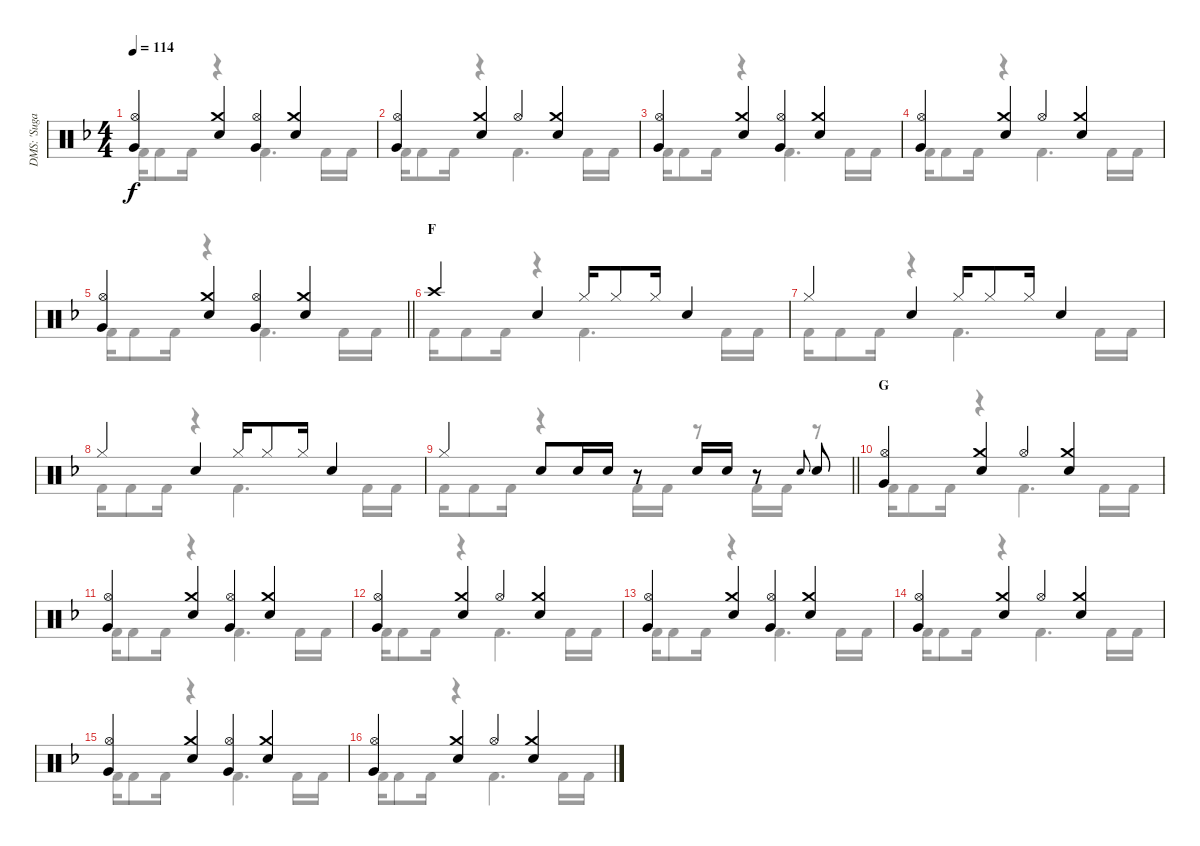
\track ("DMS: 'Sugarfoot' Moffett" "DMS: 'Suga") {instrument percussion}
\staff {score}
\articulation defaults
\voice
\ts (4 4)
\tempo 114
\clef neutral
\ks f
("Hi-Hat (open)" "Very Low Tom (hit)").4{dy f} ("Crash medium (hit)" "Snare (hit) 2").4 ("Hi-Hat (open)" "Very Low Tom (hit)").4 ("Crash medium (hit)" "Snare (hit) 2").4 |
("Hi-Hat (open)" "Very Low Tom (hit)").4 ("Crash medium (hit)" "Snare (hit) 2").4 "Hi-Hat (open)".4 ("Crash medium (hit)" "Snare (hit) 2").4 |
("Hi-Hat (open)" "Very Low Tom (hit)").4 ("Crash medium (hit)" "Snare (hit) 2").4 ("Hi-Hat (open)" "Very Low Tom (hit)").4 ("Crash medium (hit)" "Snare (hit) 2").4 |
("Hi-Hat (open)" "Very Low Tom (hit)").4 ("Crash medium (hit)" "Snare (hit) 2").4 "Hi-Hat (open)".4 ("Crash medium (hit)" "Snare (hit) 2").4 |
\barLineRight lightlight
("Hi-Hat (open)" "Very Low Tom (hit)").4 ("Crash medium (hit)" "Snare (hit) 2").4 ("Hi-Hat (open)" "Very Low Tom (hit)").4 ("Crash medium (hit)" "Snare (hit) 2").4 |
\section ("" "F")
"Crash high (hit)".4 "Snare (hit) 2".4 "Hi-Hat (closed)".16 "Hi-Hat (closed)".8 "Hi-Hat (closed)".16 "Snare (hit) 2".4 |
"Hi-Hat (closed)".4 "Snare (hit) 2".4 "Hi-Hat (closed)".16 "Hi-Hat (closed)".8 "Hi-Hat (closed)".16 "Snare (hit) 2".4 |
"Hi-Hat (closed)".4 "Snare (hit) 2".4 "Hi-Hat (closed)".16 "Hi-Hat (closed)".8 "Hi-Hat (closed)".16 "Snare (hit) 2".4 |
\barLineRight lightlight "Hi-Hat (closed)".4 "Snare (hit) 2".8 "Electric Snare (hit)".16 "Electric Snare (hit)".16
r.8 "Electric Snare (hit)".16 "Electric Snare (hit)".16 r.8 "Electric Snare (hit)".8{gr onbeat} "Snare (hit) 2".8 |
\section ("" "G")
("Hi-Hat (open)" "Very Low Tom (hit)").4 ("Crash medium (hit)" "Snare (hit) 2").4 "Hi-Hat (open)".4 ("Crash medium (hit)" "Snare (hit) 2").4 |
("Hi-Hat (open)" "Very Low Tom (hit)").4 ("Crash medium (hit)" "Snare (hit) 2").4 ("Hi-Hat (open)" "Very Low Tom (hit)").4 ("Crash medium (hit)" "Snare (hit) 2").4 |
("Hi-Hat (open)" "Very Low Tom (hit)").4 ("Crash medium (hit)" "Snare (hit) 2").4 "Hi-Hat (open)".4 ("Crash medium (hit)" "Snare (hit) 2").4 |
("Hi-Hat (open)" "Very Low Tom (hit)").4 ("Crash medium (hit)" "Snare (hit) 2").4 ("Hi-Hat (open)" "Very Low Tom (hit)").4 ("Crash medium (hit)" "Snare (hit) 2").4 |
("Hi-Hat (open)" "Very Low Tom (hit)").4 ("Crash medium (hit)" "Snare (hit) 2").4 "Hi-Hat (open)".4 ("Crash medium (hit)" "Snare (hit) 2").4 |
("Hi-Hat (open)" "Very Low Tom (hit)").4 ("Crash medium (hit)" "Snare (hit) 2").4 ("Hi-Hat (open)" "Very Low Tom (hit)").4 ("Crash medium (hit)" "Snare (hit) 2").4 |
("Hi-Hat (open)" "Very Low Tom (hit)").4 ("Crash medium (hit)" "Snare (hit) 2").4 "Hi-Hat (open)".4 ("Crash medium (hit)" "Snare (hit) 2").4
\voice
\clef neutral
\ottava regular
\simile none
\ks f "Kick (hit) 2".16{dy f} "Kick (hit) 2".8 "Kick (hit) 2".16
r.4 "Kick (hit) 2".4{d} "Kick (hit) 2".16 "Kick (hit) 2".16 |
"Kick (hit) 2".16 "Kick (hit) 2".8 "Kick (hit) 2".16 r.4 "Kick (hit) 2".4{d} "Kick (hit) 2".16 "Kick (hit) 2".16 |
"Kick (hit) 2".16 "Kick (hit) 2".8 "Kick (hit) 2".16 r.4 "Kick (hit) 2".4{d} "Kick (hit) 2".16 "Kick (hit) 2".16 |
"Kick (hit) 2".16 "Kick (hit) 2".8 "Kick (hit) 2".16 r.4 "Kick (hit) 2".4{d} "Kick (hit) 2".16 "Kick (hit) 2".16 |
\barLineRight lightlight "Kick (hit) 2".16 "Kick (hit) 2".8 "Kick (hit) 2".16
r.4 "Kick (hit) 2".4{d} "Kick (hit) 2".16 "Kick (hit) 2".16 |
"Kick (hit) 2".16 "Kick (hit) 2".8 "Kick (hit) 2".16 r.4 "Kick (hit) 2".4{d} "Kick (hit) 2".16 "Kick (hit) 2".16 |
"Kick (hit) 2".16 "Kick (hit) 2".8 "Kick (hit) 2".16 r.4 "Kick (hit) 2".4{d} "Kick (hit) 2".16 "Kick (hit) 2".16 |
"Kick (hit) 2".16 "Kick (hit) 2".8 "Kick (hit) 2".16 r.4 "Kick (hit) 2".4{d} "Kick (hit) 2".16 "Kick (hit) 2".16 |
\barLineRight lightlight "Kick (hit) 2".16 "Kick (hit) 2".8 "Kick (hit) 2".16
r.4 "Kick (hit) 2".16 "Kick (hit) 2".16 r.8 "Kick (hit) 2".16 "Kick (hit) 2".16 r.8 |
"Kick (hit) 2".16 "Kick (hit) 2".8 "Kick (hit) 2".16 r.4 "Kick (hit) 2".4{d} "Kick (hit) 2".16 "Kick (hit) 2".16 |
"Kick (hit) 2".16 "Kick (hit) 2".8 "Kick (hit) 2".16 r.4 "Kick (hit) 2".4{d} "Kick (hit) 2".16 "Kick (hit) 2".16 |
"Kick (hit) 2".16 "Kick (hit) 2".8 "Kick (hit) 2".16 r.4 "Kick (hit) 2".4{d} "Kick (hit) 2".16 "Kick (hit) 2".16 |
"Kick (hit) 2".16 "Kick (hit) 2".8 "Kick (hit) 2".16 r.4 "Kick (hit) 2".4{d} "Kick (hit) 2".16 "Kick (hit) 2".16 |
"Kick (hit) 2".16 "Kick (hit) 2".8 "Kick (hit) 2".16 r.4 "Kick (hit) 2".4{d} "Kick (hit) 2".16 "Kick (hit) 2".16 |
"Kick (hit) 2".16 "Kick (hit) 2".8 "Kick (hit) 2".16 r.4 "Kick (hit) 2".4{d} "Kick (hit) 2".16 "Kick (hit) 2".16 |
"Kick (hit) 2".16 "Kick (hit) 2".8 "Kick (hit) 2".16 r.4 "Kick (hit) 2".4{d} "Kick (hit) 2".16 "Kick (hit) 2".16
